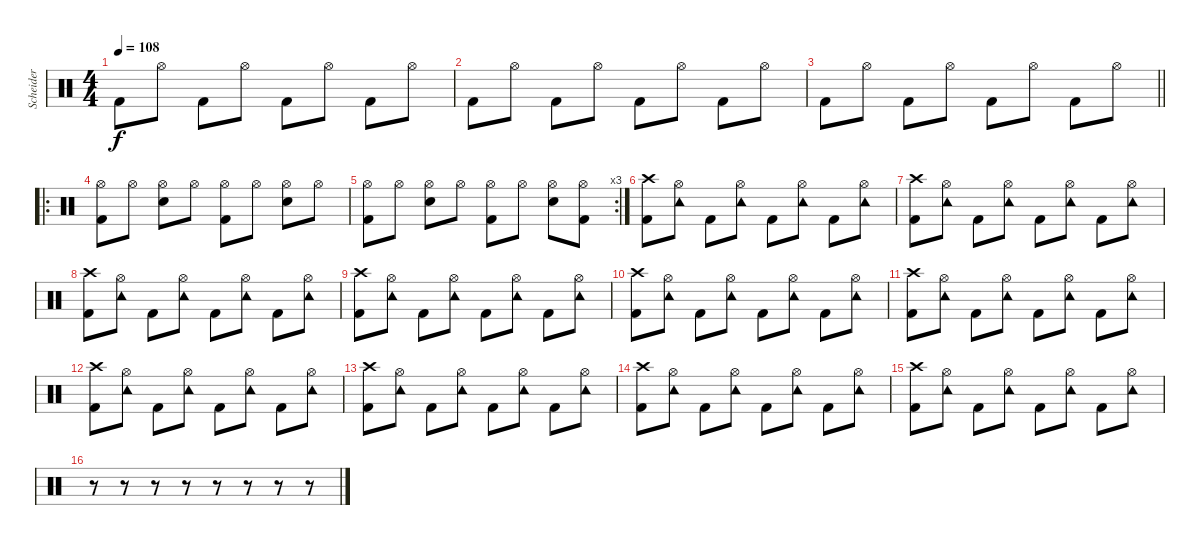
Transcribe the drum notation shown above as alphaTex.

\track ("Scheider" "Scheider") {instrument percussion}
\staff {score}
\articulation defaults
\ts (4 4)
\tempo 108
\clef neutral
\ks c "Kick (hit) 2".8{dy f} "Hi-Hat (open)".8 "Kick (hit) 2".8 "Hi-Hat (open)".8 "Kick (hit) 2".8 "Hi-Hat (open)".8 "Kick (hit) 2".8 "Hi-Hat (open)".8
|
"Kick (hit) 2".8 "Hi-Hat (open)".8 "Kick (hit) 2".8 "Hi-Hat (open)".8 "Kick (hit) 2".8 "Hi-Hat (open)".8 "Kick (hit) 2".8 "Hi-Hat (open)".8 |
\barLineRight lightlight "Kick (hit) 2".8 "Hi-Hat (open)".8 "Kick (hit) 2".8 "Hi-Hat (open)".8 "Kick (hit) 2".8 "Hi-Hat (open)".8 "Kick (hit) 2".8 "Hi-Hat (open)".8
|
\ro
("Hi-Hat (open)" "Kick (hit) 2").8 "Hi-Hat (open)".8 ("Hi-Hat (open)" "Electric Snare (hit)").8 "Hi-Hat (open)".8 ("Hi-Hat (open)" "Kick (hit) 2").8 "Hi-Hat (open)".8 ("Hi-Hat (open)" "Electric Snare (hit)").8 "Hi-Hat (open)".8 |
\rc 3
("Hi-Hat (open)" "Kick (hit) 2").8 "Hi-Hat (open)".8 ("Hi-Hat (open)" "Electric Snare (hit)").8 "Hi-Hat (open)".8 ("Hi-Hat (open)" "Kick (hit) 2").8 "Hi-Hat (open)".8 ("Hi-Hat (open)" "Electric Snare (hit)").8 ("Hi-Hat (open)" "Kick (hit) 2").8 |
("Crash high (hit)" "Kick (hit) 2").8 ("Tambourine (hit)" "Hi-Hat (open)").8 "Kick (hit) 2".8 ("Tambourine (hit)" "Hi-Hat (open)").8 "Kick (hit) 2".8 ("Tambourine (hit)" "Hi-Hat (open)").8 "Kick (hit) 2".8 ("Tambourine (hit)" "Hi-Hat (open)").8 |
("Crash high (hit)" "Kick (hit) 2").8 ("Tambourine (hit)" "Hi-Hat (open)").8 "Kick (hit) 2".8 ("Tambourine (hit)" "Hi-Hat (open)").8 "Kick (hit) 2".8 ("Tambourine (hit)" "Hi-Hat (open)").8 "Kick (hit) 2".8 ("Tambourine (hit)" "Hi-Hat (open)").8 |
("Crash high (hit)" "Kick (hit) 2").8 ("Tambourine (hit)" "Hi-Hat (open)").8 "Kick (hit) 2".8 ("Tambourine (hit)" "Hi-Hat (open)").8 "Kick (hit) 2".8 ("Tambourine (hit)" "Hi-Hat (open)").8 "Kick (hit) 2".8 ("Tambourine (hit)" "Hi-Hat (open)").8 |
("Crash high (hit)" "Kick (hit) 2").8 ("Tambourine (hit)" "Hi-Hat (open)").8 "Kick (hit) 2".8 ("Tambourine (hit)" "Hi-Hat (open)").8 "Kick (hit) 2".8 ("Tambourine (hit)" "Hi-Hat (open)").8 "Kick (hit) 2".8 ("Tambourine (hit)" "Hi-Hat (open)").8 |
("Crash high (hit)" "Kick (hit) 2").8 ("Tambourine (hit)" "Hi-Hat (open)").8 "Kick (hit) 2".8 ("Tambourine (hit)" "Hi-Hat (open)").8 "Kick (hit) 2".8 ("Tambourine (hit)" "Hi-Hat (open)").8 "Kick (hit) 2".8 ("Tambourine (hit)" "Hi-Hat (open)").8 |
("Crash high (hit)" "Kick (hit) 2").8 ("Tambourine (hit)" "Hi-Hat (open)").8 "Kick (hit) 2".8 ("Tambourine (hit)" "Hi-Hat (open)").8 "Kick (hit) 2".8 ("Tambourine (hit)" "Hi-Hat (open)").8 "Kick (hit) 2".8 ("Tambourine (hit)" "Hi-Hat (open)").8 |
("Crash high (hit)" "Kick (hit) 2").8 ("Tambourine (hit)" "Hi-Hat (open)").8 "Kick (hit) 2".8 ("Tambourine (hit)" "Hi-Hat (open)").8 "Kick (hit) 2".8 ("Tambourine (hit)" "Hi-Hat (open)").8 "Kick (hit) 2".8 ("Tambourine (hit)" "Hi-Hat (open)").8 |
("Crash high (hit)" "Kick (hit) 2").8 ("Tambourine (hit)" "Hi-Hat (open)").8 "Kick (hit) 2".8 ("Tambourine (hit)" "Hi-Hat (open)").8 "Kick (hit) 2".8 ("Tambourine (hit)" "Hi-Hat (open)").8 "Kick (hit) 2".8 ("Tambourine (hit)" "Hi-Hat (open)").8 |
("Crash high (hit)" "Kick (hit) 2").8 ("Tambourine (hit)" "Hi-Hat (open)").8 "Kick (hit) 2".8 ("Tambourine (hit)" "Hi-Hat (open)").8 "Kick (hit) 2".8 ("Tambourine (hit)" "Hi-Hat (open)").8 "Kick (hit) 2".8 ("Tambourine (hit)" "Hi-Hat (open)").8 |
("Crash high (hit)" "Kick (hit) 2").8 ("Tambourine (hit)" "Hi-Hat (open)").8 "Kick (hit) 2".8 ("Tambourine (hit)" "Hi-Hat (open)").8 "Kick (hit) 2".8 ("Tambourine (hit)" "Hi-Hat (open)").8 "Kick (hit) 2".8 ("Tambourine (hit)" "Hi-Hat (open)").8 |
r.8 r.8 r.8 r.8 r.8 r.8 r.8 r.8
